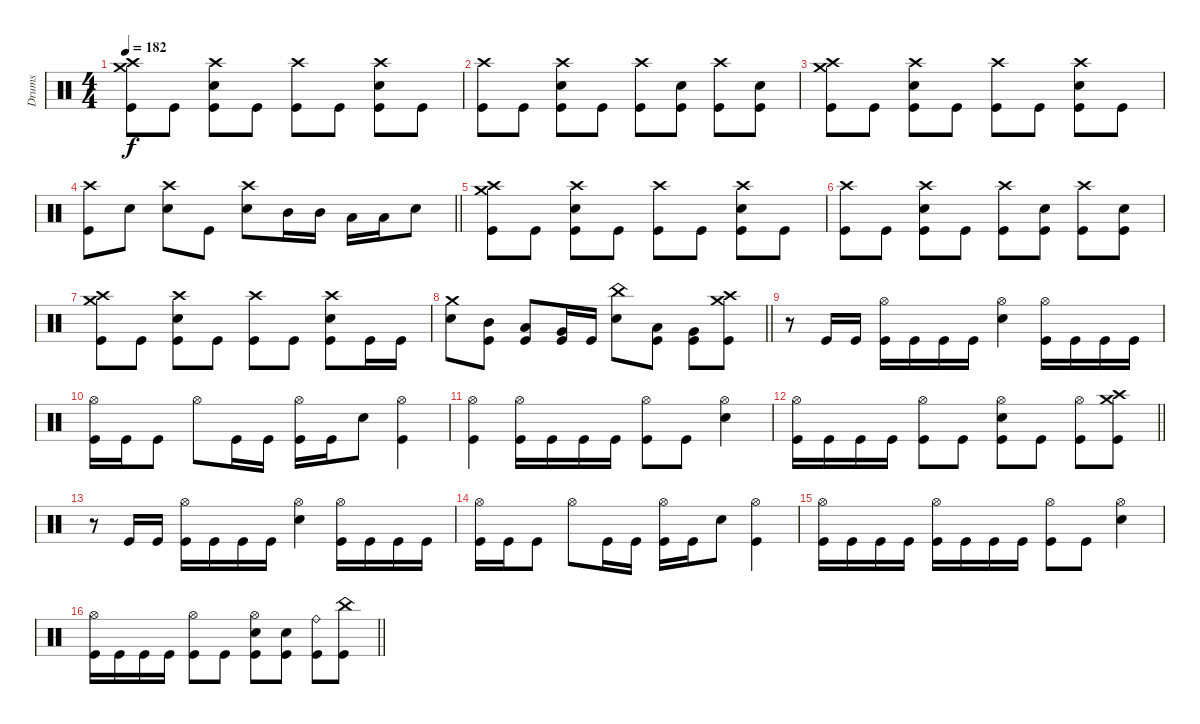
\track ("Drums" "Drums") {instrument percussion}
\staff
\articulation defaults
\ts (4 4)
\tempo 182
\clef neutral
\ks c
("Crash high (hit)" "Crash medium (hit)" "Kick (hit)").8{dy f} "Kick (hit)".8 ("Crash high (hit)" "Electric Snare (hit)" "Kick (hit)").8 "Kick (hit)".8 ("Crash high (hit)" "Kick (hit)").8 "Kick (hit)".8 ("Crash high (hit)" "Electric Snare (hit)" "Kick (hit)").8 "Kick (hit)".8 |
("Crash high (hit)" "Kick (hit)").8 "Kick (hit)".8 ("Crash high (hit)" "Electric Snare (hit)" "Kick (hit)").8 "Kick (hit)".8 ("Crash high (hit)" "Kick (hit)").8 ("Electric Snare (hit)" "Kick (hit)").8 ("Crash high (hit)" "Kick (hit)").8 ("Electric Snare (hit)" "Kick (hit)").8 |
("Crash high (hit)" "Crash medium (hit)" "Kick (hit)").8 "Kick (hit)".8 ("Crash high (hit)" "Electric Snare (hit)" "Kick (hit)").8 "Kick (hit)".8 ("Crash high (hit)" "Kick (hit)").8 "Kick (hit)".8 ("Crash high (hit)" "Electric Snare (hit)" "Kick (hit)").8 "Kick (hit)".8 |
\barLineRight lightlight
("Crash high (hit)" "Kick (hit)").8 "Electric Snare (hit)".8 ("Crash high (hit)" "Electric Snare (hit)").8 "Kick (hit)".8 ("Crash high (hit)" "Electric Snare (hit)").8 "Mid Tom (hit)".16 "Mid Tom (hit)".16 "Low Tom (hit)".16 "Low Tom (hit)".16 "Electric Snare (hit)".8 |
("Crash high (hit)" "Crash medium (hit)" "Kick (hit)").8 "Kick (hit)".8 ("Crash high (hit)" "Electric Snare (hit)" "Kick (hit)").8 "Kick (hit)".8 ("Crash high (hit)" "Kick (hit)").8 "Kick (hit)".8 ("Crash high (hit)" "Electric Snare (hit)" "Kick (hit)").8 "Kick (hit)".8 |
("Crash high (hit)" "Kick (hit)").8 "Kick (hit)".8 ("Crash high (hit)" "Electric Snare (hit)" "Kick (hit)").8 "Kick (hit)".8 ("Crash high (hit)" "Kick (hit)").8 ("Electric Snare (hit)" "Kick (hit)").8 ("Crash high (hit)" "Kick (hit)").8 ("Electric Snare (hit)" "Kick (hit)").8 |
("Crash high (hit)" "Crash medium (hit)" "Kick (hit)").8 "Kick (hit)".8 ("Crash high (hit)" "Electric Snare (hit)" "Kick (hit)").8 "Kick (hit)".8 ("Crash high (hit)" "Kick (hit)").8 "Kick (hit)".8 ("Crash high (hit)" "Electric Snare (hit)" "Kick (hit)").8 "Kick (hit)".16 "Kick (hit)".16 |
\barLineRight lightlight
("Crash medium (hit)" "Electric Snare (hit)").8 ("Mid Tom (hit)" "Kick (hit)").8 ("Low Tom (hit)" "Kick (hit)").8 ("Very Low Tom (hit)" "Kick (hit)").16 "Kick (hit)".16 ("China (hit)" "Electric Snare (hit)").8 ("Low Tom (hit)" "Kick (hit)").8 ("Very Low Tom (hit)" "Kick (hit)").8 ("Crash high (hit)" "Crash medium (hit)" "Kick (hit)").8 |
\section ("" "")
r.8 "Kick (hit)".16 "Kick (hit)".16 ("Hi-Hat (open)" "Kick (hit)").16 "Kick (hit)".16 "Kick (hit)".16 "Kick (hit)".16 ("Hi-Hat (open)" "Electric Snare (hit)").4 ("Hi-Hat (open)" "Kick (hit)").16 "Kick (hit)".16 "Kick (hit)".16 "Kick (hit)".16 |
("Hi-Hat (open)" "Kick (hit)").16 "Kick (hit)".16 "Kick (hit)".8 "Hi-Hat (open)".8 "Kick (hit)".16 "Kick (hit)".16 ("Hi-Hat (open)" "Kick (hit)").16 "Kick (hit)".16 "Electric Snare (hit)".8 ("Hi-Hat (open)" "Kick (hit)").4 |
("Hi-Hat (open)" "Kick (hit)").4 ("Hi-Hat (open)" "Kick (hit)").16 "Kick (hit)".16 "Kick (hit)".16 "Kick (hit)".16 ("Hi-Hat (open)" "Kick (hit)").8 "Kick (hit)".8 ("Hi-Hat (open)" "Electric Snare (hit)").4 |
\barLineRight lightlight
("Hi-Hat (open)" "Kick (hit)").16 "Kick (hit)".16 "Kick (hit)".16 "Kick (hit)".16 ("Hi-Hat (open)" "Kick (hit)").8 "Kick (hit)".8 ("Hi-Hat (open)" "Electric Snare (hit)" "Kick (hit)").8 "Kick (hit)".8 ("Hi-Hat (open)" "Kick (hit)").8 ("Crash high (hit)" "Crash medium (hit)" "Kick (hit)").8 |
r.8 "Kick (hit)".16 "Kick (hit)".16 ("Hi-Hat (open)" "Kick (hit)").16 "Kick (hit)".16 "Kick (hit)".16 "Kick (hit)".16 ("Hi-Hat (open)" "Electric Snare (hit)").4 ("Hi-Hat (open)" "Kick (hit)").16 "Kick (hit)".16 "Kick (hit)".16 "Kick (hit)".16 |
("Hi-Hat (open)" "Kick (hit)").16 "Kick (hit)".16 "Kick (hit)".8 "Hi-Hat (open)".8 "Kick (hit)".16 "Kick (hit)".16 ("Hi-Hat (open)" "Kick (hit)").16 "Kick (hit)".16 "Electric Snare (hit)".8 ("Hi-Hat (open)" "Kick (hit)").4 |
("Hi-Hat (open)" "Kick (hit)").16 "Kick (hit)".16 "Kick (hit)".16 "Kick (hit)".16 ("Hi-Hat (open)" "Kick (hit)").16 "Kick (hit)".16 "Kick (hit)".16 "Kick (hit)".16 ("Hi-Hat (open)" "Kick (hit)").8 "Kick (hit)".8 ("Hi-Hat (open)" "Electric Snare (hit)").4 |
\barLineRight lightlight
("Hi-Hat (open)" "Kick (hit)").16 "Kick (hit)".16 "Kick (hit)".16 "Kick (hit)".16 ("Hi-Hat (open)" "Kick (hit)").8 "Kick (hit)".8 ("Hi-Hat (open)" "Electric Snare (hit)" "Kick (hit)").8 ("Electric Snare (hit)" "Kick (hit)").8 ("Ride (bell)" "Kick (hit)").8 ("China (hit)" "Kick (hit)").8
